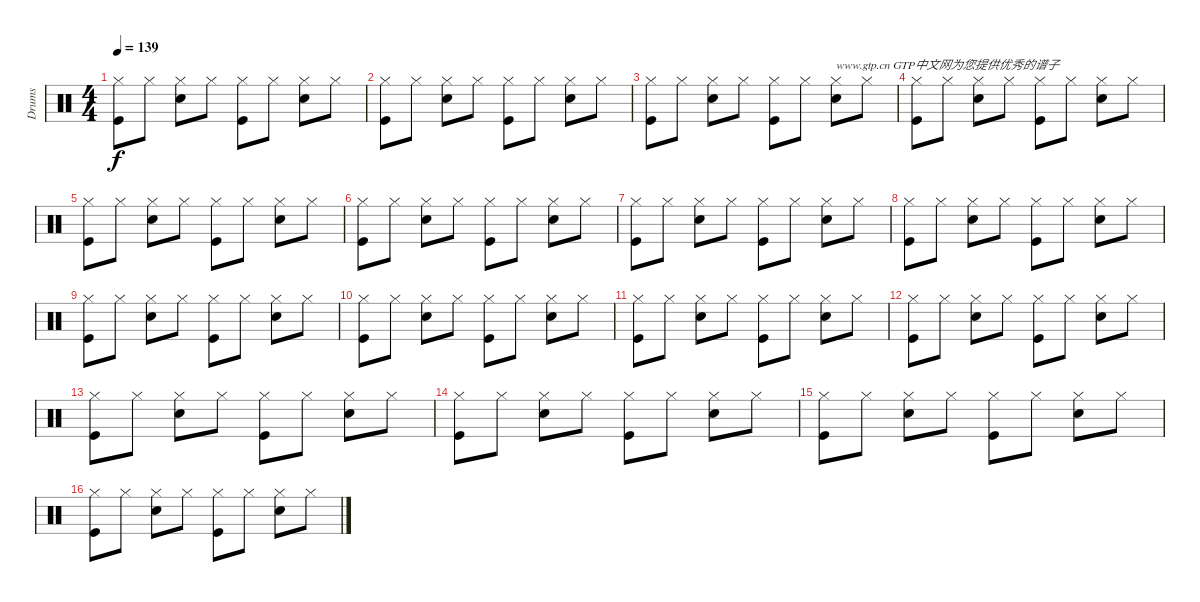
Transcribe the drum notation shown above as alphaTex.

\track ("Drums" "Drums") {instrument percussion}
\staff {score}
\articulation defaults
\ts (4 4)
\tempo 139
\clef neutral
\ks c
("Hi-Hat (closed)" "Kick (hit)").8{dy f} "Hi-Hat (closed)".8 ("Hi-Hat (closed)" "Snare (hit) 2").8 "Hi-Hat (closed)".8 ("Hi-Hat (closed)" "Kick (hit)").8 "Hi-Hat (closed)".8 ("Hi-Hat (closed)" "Snare (hit) 2").8 "Hi-Hat (closed)".8 |
("Hi-Hat (closed)" "Kick (hit)").8 "Hi-Hat (closed)".8 ("Hi-Hat (closed)" "Snare (hit) 2").8 "Hi-Hat (closed)".8 ("Hi-Hat (closed)" "Kick (hit)").8 "Hi-Hat (closed)".8 ("Hi-Hat (closed)" "Snare (hit) 2").8 "Hi-Hat (closed)".8 |
("Hi-Hat (closed)" "Kick (hit)").8 "Hi-Hat (closed)".8 ("Hi-Hat (closed)" "Snare (hit) 2").8 "Hi-Hat (closed)".8 ("Hi-Hat (closed)" "Kick (hit)").8 "Hi-Hat (closed)".8 ("Hi-Hat (closed)" "Snare (hit) 2").8{txt "www.gtp.cn GTP中文网为您提供优秀的谱子"} "Hi-Hat (closed)".8 |
("Hi-Hat (closed)" "Kick (hit)").8 "Hi-Hat (closed)".8 ("Hi-Hat (closed)" "Snare (hit) 2").8 "Hi-Hat (closed)".8 ("Hi-Hat (closed)" "Kick (hit)").8 "Hi-Hat (closed)".8 ("Hi-Hat (closed)" "Snare (hit) 2").8 "Hi-Hat (closed)".8 |
("Kick (hit)" "Hi-Hat (closed)").8 "Hi-Hat (closed)".8 ("Hi-Hat (closed)" "Snare (hit) 2").8 "Hi-Hat (closed)".8 ("Hi-Hat (closed)" "Kick (hit)").8 "Hi-Hat (closed)".8 ("Hi-Hat (closed)" "Snare (hit) 2").8 "Hi-Hat (closed)".8 |
("Kick (hit)" "Hi-Hat (closed)").8 "Hi-Hat (closed)".8 ("Hi-Hat (closed)" "Snare (hit) 2").8 "Hi-Hat (closed)".8 ("Hi-Hat (closed)" "Kick (hit)").8 "Hi-Hat (closed)".8 ("Hi-Hat (closed)" "Snare (hit) 2").8 "Hi-Hat (closed)".8 |
("Kick (hit)" "Hi-Hat (closed)").8 "Hi-Hat (closed)".8 ("Hi-Hat (closed)" "Snare (hit) 2").8 "Hi-Hat (closed)".8 ("Hi-Hat (closed)" "Kick (hit)").8 "Hi-Hat (closed)".8 ("Hi-Hat (closed)" "Snare (hit) 2").8 "Hi-Hat (closed)".8 |
("Kick (hit)" "Hi-Hat (closed)").8 "Hi-Hat (closed)".8 ("Hi-Hat (closed)" "Snare (hit) 2").8 "Hi-Hat (closed)".8 ("Hi-Hat (closed)" "Kick (hit)").8 "Hi-Hat (closed)".8 ("Hi-Hat (closed)" "Snare (hit) 2").8 "Hi-Hat (closed)".8 |
("Kick (hit)" "Hi-Hat (closed)").8 "Hi-Hat (closed)".8 ("Hi-Hat (closed)" "Snare (hit) 2").8 "Hi-Hat (closed)".8 ("Hi-Hat (closed)" "Kick (hit)").8 "Hi-Hat (closed)".8 ("Hi-Hat (closed)" "Snare (hit) 2").8 "Hi-Hat (closed)".8 |
("Kick (hit)" "Hi-Hat (closed)").8 "Hi-Hat (closed)".8 ("Hi-Hat (closed)" "Snare (hit) 2").8 "Hi-Hat (closed)".8 ("Hi-Hat (closed)" "Kick (hit)").8 "Hi-Hat (closed)".8 ("Hi-Hat (closed)" "Snare (hit) 2").8 "Hi-Hat (closed)".8 |
("Kick (hit)" "Hi-Hat (closed)").8 "Hi-Hat (closed)".8 ("Hi-Hat (closed)" "Snare (hit) 2").8 "Hi-Hat (closed)".8 ("Hi-Hat (closed)" "Kick (hit)").8 "Hi-Hat (closed)".8 ("Hi-Hat (closed)" "Snare (hit) 2").8 "Hi-Hat (closed)".8 |
("Kick (hit)" "Hi-Hat (closed)").8 "Hi-Hat (closed)".8 ("Hi-Hat (closed)" "Snare (hit) 2").8 "Hi-Hat (closed)".8 ("Hi-Hat (closed)" "Kick (hit)").8 "Hi-Hat (closed)".8 ("Hi-Hat (closed)" "Snare (hit) 2").8 "Hi-Hat (closed)".8 |
("Kick (hit)" "Hi-Hat (closed)").8 "Hi-Hat (closed)".8 ("Hi-Hat (closed)" "Snare (hit) 2").8 "Hi-Hat (closed)".8 ("Hi-Hat (closed)" "Kick (hit)").8 "Hi-Hat (closed)".8 ("Hi-Hat (closed)" "Snare (hit) 2").8 "Hi-Hat (closed)".8 |
("Kick (hit)" "Hi-Hat (closed)").8 "Hi-Hat (closed)".8 ("Hi-Hat (closed)" "Snare (hit) 2").8 "Hi-Hat (closed)".8 ("Hi-Hat (closed)" "Kick (hit)").8 "Hi-Hat (closed)".8 ("Hi-Hat (closed)" "Snare (hit) 2").8 "Hi-Hat (closed)".8 |
("Kick (hit)" "Hi-Hat (closed)").8 "Hi-Hat (closed)".8 ("Hi-Hat (closed)" "Snare (hit) 2").8 "Hi-Hat (closed)".8 ("Hi-Hat (closed)" "Kick (hit)").8 "Hi-Hat (closed)".8 ("Hi-Hat (closed)" "Snare (hit) 2").8 "Hi-Hat (closed)".8 |
("Kick (hit)" "Hi-Hat (closed)").8 "Hi-Hat (closed)".8 ("Hi-Hat (closed)" "Snare (hit) 2").8 "Hi-Hat (closed)".8 ("Hi-Hat (closed)" "Kick (hit)").8 "Hi-Hat (closed)".8 ("Hi-Hat (closed)" "Snare (hit) 2").8 "Hi-Hat (closed)".8
